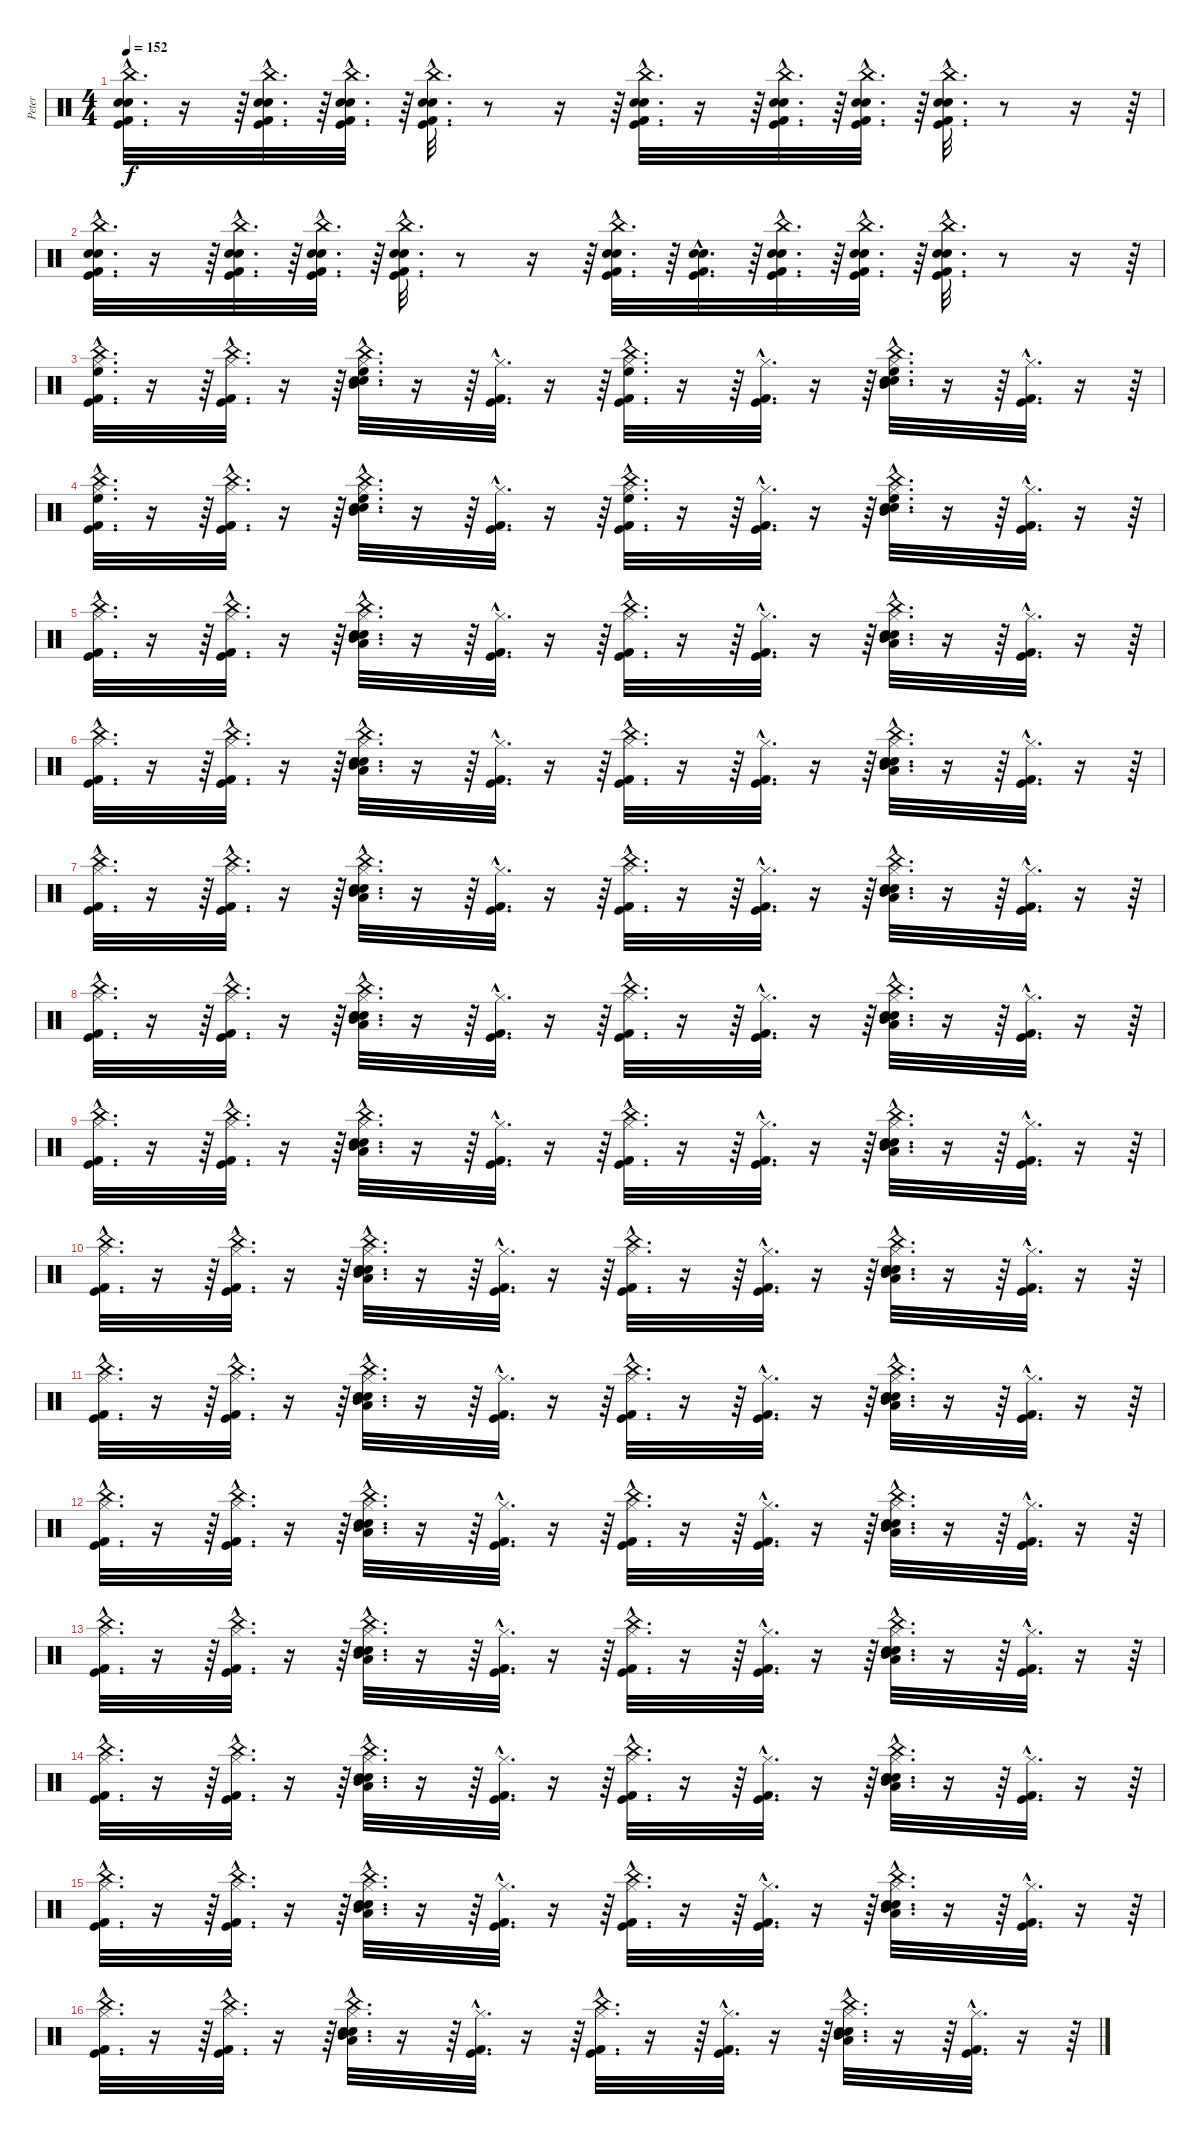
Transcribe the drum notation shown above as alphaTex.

\track ("Peter" "Peter") {instrument percussion}
\staff {score}
\articulation defaults
\ts (4 4)
\tempo 152
\clef neutral
\ks c
("Electric Snare (hit)"{hac} "Snare (hit) 2"{hac} "Kick (hit) 2"{hac} "Kick (hit)"{hac} "China (hit)"{hac}).32{d dy f} r.16 r.64 ("Electric Snare (hit)"{hac} "Snare (hit) 2"{hac} "Kick (hit) 2"{hac} "Kick (hit)"{hac} "China (hit)"{hac}).32{d} r.64 ("Electric Snare (hit)"{hac} "Snare (hit) 2"{hac} "Kick (hit) 2"{hac} "Kick (hit)"{hac} "China (hit)"{hac}).32{d} r.64 ("Electric Snare (hit)"{hac} "Snare (hit) 2"{hac} "Kick (hit) 2"{hac} "Kick (hit)"{hac} "China (hit)"{hac}).32{d} r.8 r.16 r.64 ("Electric Snare (hit)"{hac} "Snare (hit) 2"{hac} "Kick (hit) 2"{hac} "Kick (hit)"{hac} "China (hit)"{hac}).32{d} r.16 r.64 ("Electric Snare (hit)"{hac} "Snare (hit) 2"{hac} "Kick (hit) 2"{hac} "Kick (hit)"{hac} "China (hit)"{hac}).32{d} r.64 ("Electric Snare (hit)"{hac} "Snare (hit) 2"{hac} "Kick (hit) 2"{hac} "Kick (hit)"{hac} "China (hit)"{hac}).32{d} r.64 ("Electric Snare (hit)"{hac} "Snare (hit) 2"{hac} "Kick (hit) 2"{hac} "Kick (hit)"{hac} "China (hit)"{hac}).32{d} r.8 r.16 r.64 |
("Electric Snare (hit)"{hac} "Snare (hit) 2"{hac} "Kick (hit) 2"{hac} "Kick (hit)"{hac} "China (hit)"{hac}).32{d} r.16 r.64 ("Electric Snare (hit)"{hac} "Snare (hit) 2"{hac} "Kick (hit) 2"{hac} "Kick (hit)"{hac} "China (hit)"{hac}).32{d} r.64 ("Electric Snare (hit)"{hac} "Snare (hit) 2"{hac} "Kick (hit) 2"{hac} "Kick (hit)"{hac} "China (hit)"{hac}).32{d} r.64 ("Electric Snare (hit)"{hac} "Snare (hit) 2"{hac} "Kick (hit) 2"{hac} "Kick (hit)"{hac} "China (hit)"{hac}).32{d} r.8 r.16 r.64 ("Electric Snare (hit)"{hac} "Snare (hit) 2"{hac} "Kick (hit) 2"{hac} "Kick (hit)"{hac} "China (hit)"{hac}).32{d} r.64 ("Electric Snare (hit)"{hac} "Snare (hit) 2"{hac} "Kick (hit) 2"{hac} "Kick (hit)"{hac}).32{d} r.64 ("Electric Snare (hit)"{hac} "Snare (hit) 2"{hac} "Kick (hit) 2"{hac} "Kick (hit)"{hac} "China (hit)"{hac}).32{d} r.64 ("Electric Snare (hit)"{hac} "Snare (hit) 2"{hac} "Kick (hit) 2"{hac} "Kick (hit)"{hac} "China (hit)"{hac}).32{d} r.64 ("Electric Snare (hit)"{hac} "Snare (hit) 2"{hac} "Kick (hit) 2"{hac} "Kick (hit)"{hac} "China (hit)"{hac}).32{d} r.8 r.16 r.64 |
("China (hit)"{hac} "Kick (hit) 2"{hac} "Kick (hit)"{hac} "Hi-Hat (closed)"{hac} "High Floor Tom (hit)"{hac}).32{d} r.16 r.64 ("Kick (hit)"{hac} "Kick (hit) 2"{hac} "China (hit)"{hac} "Hi-Hat (closed)"{hac}).32{d} r.16 r.64 ("China (hit)"{hac} "Electric Snare (hit)"{hac} "Snare (hit) 2"{hac} "Hi-Hat (closed)"{hac} "Mid Tom (hit)"{hac} "High Floor Tom (hit)"{hac}).32{d} r.16 r.64 ("Kick (hit) 2"{hac} "Kick (hit)"{hac} "Hi-Hat (closed)"{hac}).32{d} r.16 r.64 ("China (hit)"{hac} "Kick (hit)"{hac} "Kick (hit) 2"{hac} "Hi-Hat (closed)"{hac} "High Floor Tom (hit)"{hac}).32{d} r.16 r.64 ("Kick (hit) 2"{hac} "Kick (hit)"{hac} "Hi-Hat (closed)"{hac}).32{d} r.16 r.64 ("China (hit)"{hac} "Electric Snare (hit)"{hac} "Snare (hit) 2"{hac} "Hi-Hat (closed)"{hac} "Mid Tom (hit)"{hac} "High Floor Tom (hit)"{hac}).32{d} r.16 r.64 ("Kick (hit) 2"{hac} "Kick (hit)"{hac} "Hi-Hat (closed)"{hac}).32{d} r.16 r.64 |
("China (hit)"{hac} "Kick (hit) 2"{hac} "Kick (hit)"{hac} "Hi-Hat (closed)"{hac} "High Floor Tom (hit)"{hac}).32{d} r.16 r.64 ("Kick (hit)"{hac} "Kick (hit) 2"{hac} "China (hit)"{hac} "Hi-Hat (closed)"{hac}).32{d} r.16 r.64 ("China (hit)"{hac} "Electric Snare (hit)"{hac} "Snare (hit) 2"{hac} "Hi-Hat (closed)"{hac} "Mid Tom (hit)"{hac} "High Floor Tom (hit)"{hac}).32{d} r.16 r.64 ("Kick (hit) 2"{hac} "Kick (hit)"{hac} "Hi-Hat (closed)"{hac}).32{d} r.16 r.64 ("China (hit)"{hac} "Kick (hit)"{hac} "Kick (hit) 2"{hac} "Hi-Hat (closed)"{hac} "High Floor Tom (hit)"{hac}).32{d} r.16 r.64 ("Kick (hit) 2"{hac} "Kick (hit)"{hac} "Hi-Hat (closed)"{hac}).32{d} r.16 r.64 ("China (hit)"{hac} "Electric Snare (hit)"{hac} "Snare (hit) 2"{hac} "Hi-Hat (closed)"{hac} "Mid Tom (hit)"{hac} "High Floor Tom (hit)"{hac}).32{d} r.16 r.64 ("Kick (hit) 2"{hac} "Kick (hit)"{hac} "Hi-Hat (closed)"{hac}).32{d} r.16 r.64 |
("China (hit)"{hac} "Kick (hit) 2"{hac} "Kick (hit)"{hac} "Hi-Hat (closed)"{hac}).32{d} r.16 r.64 ("Kick (hit)"{hac} "Kick (hit) 2"{hac} "China (hit)"{hac} "Hi-Hat (closed)"{hac}).32{d} r.16 r.64 ("China (hit)"{hac} "Electric Snare (hit)"{hac} "Snare (hit) 2"{hac} "Hi-Hat (closed)"{hac} "Mid Tom (hit)"{hac} "Low Tom (hit)"{hac}).32{d} r.16 r.64 ("Kick (hit) 2"{hac} "Kick (hit)"{hac} "Hi-Hat (closed)"{hac}).32{d} r.16 r.64 ("China (hit)"{hac} "Kick (hit)"{hac} "Kick (hit) 2"{hac} "Hi-Hat (closed)"{hac}).32{d} r.16 r.64 ("Kick (hit) 2"{hac} "Kick (hit)"{hac} "Hi-Hat (closed)"{hac}).32{d} r.16 r.64 ("China (hit)"{hac} "Electric Snare (hit)"{hac} "Snare (hit) 2"{hac} "Hi-Hat (closed)"{hac} "Mid Tom (hit)"{hac} "Low Tom (hit)"{hac}).32{d} r.16 r.64 ("Kick (hit) 2"{hac} "Kick (hit)"{hac} "Hi-Hat (closed)"{hac}).32{d} r.16 r.64 |
("China (hit)"{hac} "Kick (hit) 2"{hac} "Kick (hit)"{hac} "Hi-Hat (closed)"{hac}).32{d} r.16 r.64 ("Kick (hit)"{hac} "Kick (hit) 2"{hac} "China (hit)"{hac} "Hi-Hat (closed)"{hac}).32{d} r.16 r.64 ("China (hit)"{hac} "Electric Snare (hit)"{hac} "Snare (hit) 2"{hac} "Hi-Hat (closed)"{hac} "Mid Tom (hit)"{hac} "Low Tom (hit)"{hac}).32{d} r.16 r.64 ("Kick (hit) 2"{hac} "Kick (hit)"{hac} "Hi-Hat (closed)"{hac}).32{d} r.16 r.64 ("China (hit)"{hac} "Kick (hit)"{hac} "Kick (hit) 2"{hac} "Hi-Hat (closed)"{hac}).32{d} r.16 r.64 ("Kick (hit) 2"{hac} "Kick (hit)"{hac} "Hi-Hat (closed)"{hac}).32{d} r.16 r.64 ("China (hit)"{hac} "Electric Snare (hit)"{hac} "Snare (hit) 2"{hac} "Hi-Hat (closed)"{hac} "Mid Tom (hit)"{hac} "Low Tom (hit)"{hac}).32{d} r.16 r.64 ("Kick (hit) 2"{hac} "Kick (hit)"{hac} "Hi-Hat (closed)"{hac}).32{d} r.16 r.64 |
("China (hit)"{hac} "Kick (hit) 2"{hac} "Kick (hit)"{hac} "Hi-Hat (closed)"{hac}).32{d} r.16 r.64 ("Kick (hit)"{hac} "Kick (hit) 2"{hac} "China (hit)"{hac} "Hi-Hat (closed)"{hac}).32{d} r.16 r.64 ("China (hit)"{hac} "Electric Snare (hit)"{hac} "Snare (hit) 2"{hac} "Hi-Hat (closed)"{hac} "Mid Tom (hit)"{hac} "Low Tom (hit)"{hac}).32{d} r.16 r.64 ("Kick (hit) 2"{hac} "Kick (hit)"{hac} "Hi-Hat (closed)"{hac}).32{d} r.16 r.64 ("China (hit)"{hac} "Kick (hit)"{hac} "Kick (hit) 2"{hac} "Hi-Hat (closed)"{hac}).32{d} r.16 r.64 ("Kick (hit) 2"{hac} "Kick (hit)"{hac} "Hi-Hat (closed)"{hac}).32{d} r.16 r.64 ("China (hit)"{hac} "Electric Snare (hit)"{hac} "Snare (hit) 2"{hac} "Hi-Hat (closed)"{hac} "Mid Tom (hit)"{hac} "Low Tom (hit)"{hac}).32{d} r.16 r.64 ("Kick (hit) 2"{hac} "Kick (hit)"{hac} "Hi-Hat (closed)"{hac}).32{d} r.16 r.64 |
("China (hit)"{hac} "Kick (hit) 2"{hac} "Kick (hit)"{hac} "Hi-Hat (closed)"{hac}).32{d} r.16 r.64 ("Kick (hit)"{hac} "Kick (hit) 2"{hac} "China (hit)"{hac} "Hi-Hat (closed)"{hac}).32{d} r.16 r.64 ("China (hit)"{hac} "Electric Snare (hit)"{hac} "Snare (hit) 2"{hac} "Hi-Hat (closed)"{hac} "Mid Tom (hit)"{hac} "Low Tom (hit)"{hac}).32{d} r.16 r.64 ("Kick (hit) 2"{hac} "Kick (hit)"{hac} "Hi-Hat (closed)"{hac}).32{d} r.16 r.64 ("China (hit)"{hac} "Kick (hit)"{hac} "Kick (hit) 2"{hac} "Hi-Hat (closed)"{hac}).32{d} r.16 r.64 ("Kick (hit) 2"{hac} "Kick (hit)"{hac} "Hi-Hat (closed)"{hac}).32{d} r.16 r.64 ("China (hit)"{hac} "Electric Snare (hit)"{hac} "Snare (hit) 2"{hac} "Hi-Hat (closed)"{hac} "Mid Tom (hit)"{hac} "Low Tom (hit)"{hac}).32{d} r.16 r.64 ("Kick (hit) 2"{hac} "Kick (hit)"{hac} "Hi-Hat (closed)"{hac}).32{d} r.16 r.64 |
("China (hit)"{hac} "Kick (hit) 2"{hac} "Kick (hit)"{hac} "Hi-Hat (closed)"{hac}).32{d} r.16 r.64 ("Kick (hit)"{hac} "Kick (hit) 2"{hac} "China (hit)"{hac} "Hi-Hat (closed)"{hac}).32{d} r.16 r.64 ("China (hit)"{hac} "Electric Snare (hit)"{hac} "Snare (hit) 2"{hac} "Hi-Hat (closed)"{hac} "Mid Tom (hit)"{hac} "Low Tom (hit)"{hac}).32{d} r.16 r.64 ("Kick (hit) 2"{hac} "Kick (hit)"{hac} "Hi-Hat (closed)"{hac}).32{d} r.16 r.64 ("China (hit)"{hac} "Kick (hit)"{hac} "Kick (hit) 2"{hac} "Hi-Hat (closed)"{hac}).32{d} r.16 r.64 ("Kick (hit) 2"{hac} "Kick (hit)"{hac} "Hi-Hat (closed)"{hac}).32{d} r.16 r.64 ("China (hit)"{hac} "Electric Snare (hit)"{hac} "Snare (hit) 2"{hac} "Hi-Hat (closed)"{hac} "Mid Tom (hit)"{hac} "Low Tom (hit)"{hac}).32{d} r.16 r.64 ("Kick (hit) 2"{hac} "Kick (hit)"{hac} "Hi-Hat (closed)"{hac}).32{d} r.16 r.64 |
("China (hit)"{hac} "Kick (hit) 2"{hac} "Kick (hit)"{hac} "Hi-Hat (closed)"{hac}).32{d} r.16 r.64 ("Kick (hit)"{hac} "Kick (hit) 2"{hac} "China (hit)"{hac} "Hi-Hat (closed)"{hac}).32{d} r.16 r.64 ("China (hit)"{hac} "Electric Snare (hit)"{hac} "Snare (hit) 2"{hac} "Hi-Hat (closed)"{hac} "Mid Tom (hit)"{hac} "Low Tom (hit)"{hac}).32{d} r.16 r.64 ("Kick (hit) 2"{hac} "Kick (hit)"{hac} "Hi-Hat (closed)"{hac}).32{d} r.16 r.64 ("China (hit)"{hac} "Kick (hit)"{hac} "Kick (hit) 2"{hac} "Hi-Hat (closed)"{hac}).32{d} r.16 r.64 ("Kick (hit) 2"{hac} "Kick (hit)"{hac} "Hi-Hat (closed)"{hac}).32{d} r.16 r.64 ("China (hit)"{hac} "Electric Snare (hit)"{hac} "Snare (hit) 2"{hac} "Hi-Hat (closed)"{hac} "Mid Tom (hit)"{hac} "Low Tom (hit)"{hac}).32{d} r.16 r.64 ("Kick (hit) 2"{hac} "Kick (hit)"{hac} "Hi-Hat (closed)"{hac}).32{d} r.16 r.64 |
("China (hit)"{hac} "Kick (hit) 2"{hac} "Kick (hit)"{hac} "Hi-Hat (closed)"{hac}).32{d} r.16 r.64 ("Kick (hit) 2"{hac} "China (hit)"{hac} "Hi-Hat (closed)"{hac} "Kick (hit)"{hac}).32{d} r.16 r.64 ("China (hit)"{hac} "Electric Snare (hit)"{hac} "Snare (hit) 2"{hac} "Hi-Hat (closed)"{hac} "Mid Tom (hit)"{hac} "Low Tom (hit)"{hac}).32{d} r.16 r.64 ("Kick (hit) 2"{hac} "Kick (hit)"{hac} "Hi-Hat (closed)"{hac}).32{d} r.16 r.64 ("China (hit)"{hac} "Kick (hit)"{hac} "Kick (hit) 2"{hac} "Hi-Hat (closed)"{hac}).32{d} r.16 r.64 ("Kick (hit) 2"{hac} "Kick (hit)"{hac} "Hi-Hat (closed)"{hac}).32{d} r.16 r.64 ("China (hit)"{hac} "Electric Snare (hit)"{hac} "Snare (hit) 2"{hac} "Hi-Hat (closed)"{hac} "Mid Tom (hit)"{hac} "Low Tom (hit)"{hac}).32{d} r.16 r.64 ("Kick (hit) 2"{hac} "Kick (hit)"{hac} "Hi-Hat (closed)"{hac}).32{d} r.16 r.64 |
("China (hit)"{hac} "Kick (hit) 2"{hac} "Kick (hit)"{hac} "Hi-Hat (closed)"{hac}).32{d} r.16 r.64 ("Kick (hit)"{hac} "Kick (hit) 2"{hac} "China (hit)"{hac} "Hi-Hat (closed)"{hac}).32{d} r.16 r.64 ("China (hit)"{hac} "Electric Snare (hit)"{hac} "Snare (hit) 2"{hac} "Hi-Hat (closed)"{hac} "Mid Tom (hit)"{hac} "Low Tom (hit)"{hac}).32{d} r.16 r.64 ("Kick (hit) 2"{hac} "Kick (hit)"{hac} "Hi-Hat (closed)"{hac}).32{d} r.16 r.64 ("China (hit)"{hac} "Kick (hit)"{hac} "Kick (hit) 2"{hac} "Hi-Hat (closed)"{hac}).32{d} r.16 r.64 ("Kick (hit) 2"{hac} "Kick (hit)"{hac} "Hi-Hat (closed)"{hac}).32{d} r.16 r.64 ("China (hit)"{hac} "Electric Snare (hit)"{hac} "Snare (hit) 2"{hac} "Hi-Hat (closed)"{hac} "Mid Tom (hit)"{hac} "Low Tom (hit)"{hac}).32{d} r.16 r.64 ("Kick (hit) 2"{hac} "Kick (hit)"{hac} "Hi-Hat (closed)"{hac}).32{d} r.16 r.64 |
("China (hit)"{hac} "Kick (hit) 2"{hac} "Kick (hit)"{hac} "Hi-Hat (closed)"{hac}).32{d} r.16 r.64 ("Kick (hit)"{hac} "Kick (hit) 2"{hac} "China (hit)"{hac} "Hi-Hat (closed)"{hac}).32{d} r.16 r.64 ("China (hit)"{hac} "Electric Snare (hit)"{hac} "Snare (hit) 2"{hac} "Hi-Hat (closed)"{hac} "Mid Tom (hit)"{hac} "Low Tom (hit)"{hac}).32{d} r.16 r.64 ("Kick (hit) 2"{hac} "Kick (hit)"{hac} "Hi-Hat (closed)"{hac}).32{d} r.16 r.64 ("China (hit)"{hac} "Kick (hit)"{hac} "Kick (hit) 2"{hac} "Hi-Hat (closed)"{hac}).32{d} r.16 r.64 ("Kick (hit) 2"{hac} "Kick (hit)"{hac} "Hi-Hat (closed)"{hac}).32{d} r.16 r.64 ("China (hit)"{hac} "Electric Snare (hit)"{hac} "Snare (hit) 2"{hac} "Hi-Hat (closed)"{hac} "Mid Tom (hit)"{hac} "Low Tom (hit)"{hac}).32{d} r.16 r.64 ("Kick (hit) 2"{hac} "Kick (hit)"{hac} "Hi-Hat (closed)"{hac}).32{d} r.16 r.64 |
("China (hit)"{hac} "Kick (hit) 2"{hac} "Kick (hit)"{hac} "Hi-Hat (closed)"{hac}).32{d} r.16 r.64 ("Kick (hit)"{hac} "Kick (hit) 2"{hac} "China (hit)"{hac} "Hi-Hat (closed)"{hac}).32{d} r.16 r.64 ("China (hit)"{hac} "Electric Snare (hit)"{hac} "Snare (hit) 2"{hac} "Hi-Hat (closed)"{hac} "Mid Tom (hit)"{hac} "Low Tom (hit)"{hac}).32{d} r.16 r.64 ("Kick (hit) 2"{hac} "Kick (hit)"{hac} "Hi-Hat (closed)"{hac}).32{d} r.16 r.64 ("China (hit)"{hac} "Kick (hit)"{hac} "Kick (hit) 2"{hac} "Hi-Hat (closed)"{hac}).32{d} r.16 r.64 ("Kick (hit) 2"{hac} "Kick (hit)"{hac} "Hi-Hat (closed)"{hac}).32{d} r.16 r.64 ("China (hit)"{hac} "Electric Snare (hit)"{hac} "Snare (hit) 2"{hac} "Hi-Hat (closed)"{hac} "Mid Tom (hit)"{hac} "Low Tom (hit)"{hac}).32{d} r.16 r.64 ("Kick (hit) 2"{hac} "Kick (hit)"{hac} "Hi-Hat (closed)"{hac}).32{d} r.16 r.64 |
("China (hit)"{hac} "Kick (hit) 2"{hac} "Kick (hit)"{hac} "Hi-Hat (closed)"{hac}).32{d} r.16 r.64 ("Kick (hit)"{hac} "Kick (hit) 2"{hac} "China (hit)"{hac} "Hi-Hat (closed)"{hac}).32{d} r.16 r.64 ("China (hit)"{hac} "Electric Snare (hit)"{hac} "Snare (hit) 2"{hac} "Hi-Hat (closed)"{hac} "Mid Tom (hit)"{hac} "Low Tom (hit)"{hac}).32{d} r.16 r.64 ("Kick (hit) 2"{hac} "Kick (hit)"{hac} "Hi-Hat (closed)"{hac}).32{d} r.16 r.64 ("China (hit)"{hac} "Kick (hit)"{hac} "Kick (hit) 2"{hac} "Hi-Hat (closed)"{hac}).32{d} r.16 r.64 ("Kick (hit) 2"{hac} "Kick (hit)"{hac} "Hi-Hat (closed)"{hac}).32{d} r.16 r.64 ("China (hit)"{hac} "Electric Snare (hit)"{hac} "Snare (hit) 2"{hac} "Hi-Hat (closed)"{hac} "Mid Tom (hit)"{hac} "Low Tom (hit)"{hac}).32{d} r.16 r.64 ("Kick (hit) 2"{hac} "Kick (hit)"{hac} "Hi-Hat (closed)"{hac}).32{d} r.16 r.64 |
("China (hit)"{hac} "Kick (hit) 2"{hac} "Kick (hit)"{hac} "Hi-Hat (closed)"{hac}).32{d} r.16 r.64 ("Kick (hit)"{hac} "Kick (hit) 2"{hac} "China (hit)"{hac} "Hi-Hat (closed)"{hac}).32{d} r.16 r.64 ("China (hit)"{hac} "Electric Snare (hit)"{hac} "Snare (hit) 2"{hac} "Hi-Hat (closed)"{hac} "Mid Tom (hit)"{hac} "Low Tom (hit)"{hac}).32{d} r.16 r.64 ("Kick (hit) 2"{hac} "Kick (hit)"{hac} "Hi-Hat (closed)"{hac}).32{d} r.16 r.64 ("China (hit)"{hac} "Kick (hit)"{hac} "Kick (hit) 2"{hac} "Hi-Hat (closed)"{hac}).32{d} r.16 r.64 ("Kick (hit) 2"{hac} "Kick (hit)"{hac} "Hi-Hat (closed)"{hac}).32{d} r.16 r.64 ("China (hit)"{hac} "Electric Snare (hit)"{hac} "Snare (hit) 2"{hac} "Hi-Hat (closed)"{hac} "Mid Tom (hit)"{hac} "Low Tom (hit)"{hac}).32{d} r.16 r.64 ("Kick (hit) 2"{hac} "Kick (hit)"{hac} "Hi-Hat (closed)"{hac}).32{d} r.16 r.64
